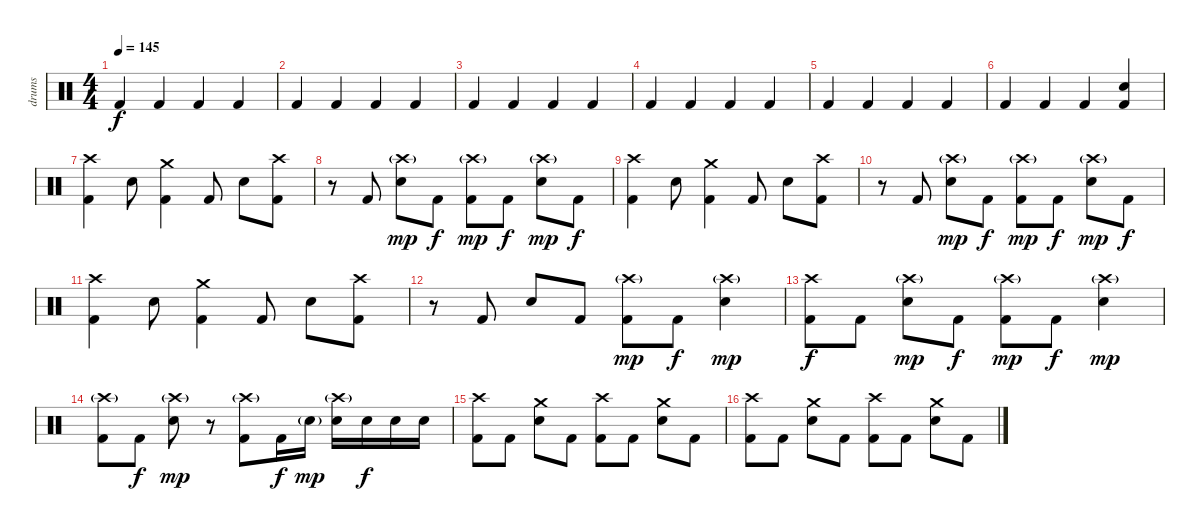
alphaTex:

\track ("drums" "drums") {instrument percussion}
\staff {score}
\articulation defaults
\ts (4 4)
\tempo 145
\clef neutral
\ks c "Kick (hit) 2".4{dy f} "Kick (hit) 2".4 "Kick (hit) 2".4 "Kick (hit) 2".4
|
"Kick (hit) 2".4 "Kick (hit) 2".4 "Kick (hit) 2".4 "Kick (hit) 2".4 |
"Kick (hit) 2".4 "Kick (hit) 2".4 "Kick (hit) 2".4 "Kick (hit) 2".4 |
"Kick (hit) 2".4 "Kick (hit) 2".4 "Kick (hit) 2".4 "Kick (hit) 2".4 |
"Kick (hit) 2".4 "Kick (hit) 2".4 "Kick (hit) 2".4 "Kick (hit) 2".4 |
"Kick (hit) 2".4 "Kick (hit) 2".4 "Kick (hit) 2".4 ("Snare (hit) 2" "Kick (hit) 2").4 |
("Crash high (hit)" "Kick (hit) 2").4 "Snare (hit) 2".8 ("Crash medium (hit)" "Kick (hit) 2").4 "Kick (hit) 2".8 "Snare (hit) 2".8 ("Crash high (hit)" "Kick (hit) 2").8 |
r.8 "Kick (hit) 2".8 ("Crash high (hit)"{g} "Snare (hit) 2").8{dy mp} "Kick (hit) 2".8{dy f} ("Crash high (hit)"{g} "Kick (hit) 2").8{dy mp} "Kick (hit) 2".8{dy f} ("Crash high (hit)"{g} "Snare (hit) 2").8{dy mp} "Kick (hit) 2".8{dy f} |
("Crash high (hit)" "Kick (hit) 2").4 "Snare (hit) 2".8 ("Crash medium (hit)" "Kick (hit) 2").4 "Kick (hit) 2".8 "Snare (hit) 2".8 ("Crash high (hit)" "Kick (hit) 2").8 |
r.8 "Kick (hit) 2".8 ("Crash high (hit)"{g} "Snare (hit) 2").8{dy mp} "Kick (hit) 2".8{dy f} ("Crash high (hit)"{g} "Kick (hit) 2").8{dy mp} "Kick (hit) 2".8{dy f} ("Crash high (hit)"{g} "Snare (hit) 2").8{dy mp} "Kick (hit) 2".8{dy f} |
("Crash high (hit)" "Kick (hit) 2").4 "Snare (hit) 2".8 ("Crash medium (hit)" "Kick (hit) 2").4 "Kick (hit) 2".8 "Snare (hit) 2".8 ("Crash high (hit)" "Kick (hit) 2").8 |
r.8 "Kick (hit) 2".8 "Snare (hit) 2".8 "Kick (hit) 2".8 ("Crash high (hit)"{g} "Kick (hit) 2").8{dy mp} "Kick (hit) 2".8{dy f} ("Crash high (hit)"{g} "Snare (hit) 2").4{dy mp} |
("Crash high (hit)" "Kick (hit) 2").8{dy f} "Kick (hit) 2".8 ("Crash high (hit)"{g} "Snare (hit) 2").8{dy mp} "Kick (hit) 2".8{dy f} ("Crash high (hit)"{g} "Kick (hit) 2").8{dy mp} "Kick (hit) 2".8{dy f} ("Crash high (hit)"{g} "Snare (hit) 2").4{dy mp} |
("Crash high (hit)"{g} "Kick (hit) 2").8 "Kick (hit) 2".8{dy f} ("Crash high (hit)"{g} "Snare (hit) 2").8{dy mp} r.8 ("Crash high (hit)"{g} "Kick (hit) 2").8 "Kick (hit) 2".16{dy f} "Snare (hit) 2"{g}.16{dy mp} ("Crash high (hit)"{g} "Snare (hit) 2").16 "Snare (hit) 2".16{dy f} "Snare (hit) 2".16 "Snare (hit) 2".16 |
("Crash high (hit)" "Kick (hit) 2").8 "Kick (hit) 2".8 ("Crash medium (hit)" "Snare (hit) 2").8 "Kick (hit) 2".8 ("Crash high (hit)" "Kick (hit) 2").8 "Kick (hit) 2".8 ("Crash medium (hit)" "Snare (hit) 2").8 "Kick (hit) 2".8 |
("Crash high (hit)" "Kick (hit) 2").8 "Kick (hit) 2".8 ("Crash medium (hit)" "Snare (hit) 2").8 "Kick (hit) 2".8 ("Crash high (hit)" "Kick (hit) 2").8 "Kick (hit) 2".8 ("Crash medium (hit)" "Snare (hit) 2").8 "Kick (hit) 2".8
